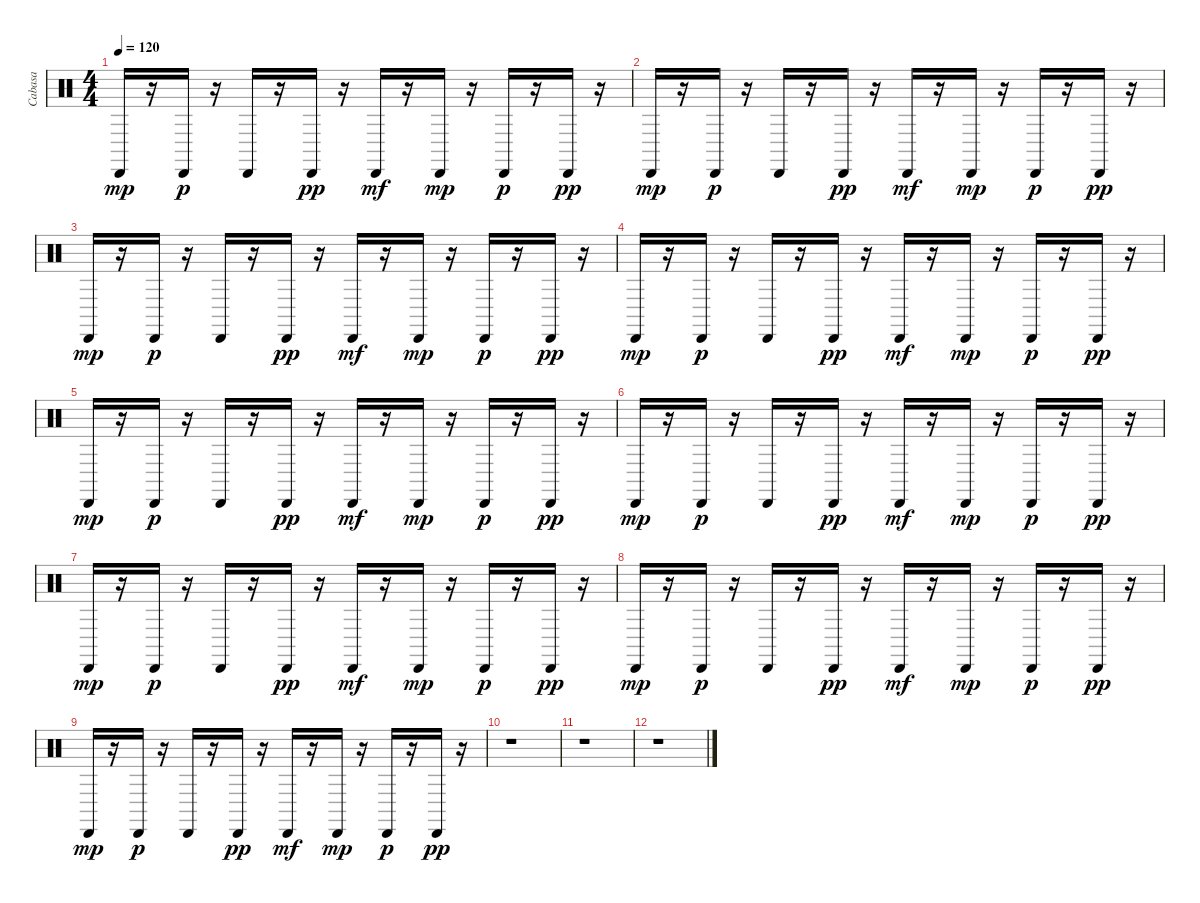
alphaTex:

\track ("Cabasa" "Cabasa") {instrument percussion}
\staff {score}
\articulation defaults
\ts (4 4)
\tempo 120
\clef neutral
\ks c "Cabasa (hit)".16{dy mp}
r.16 "Cabasa (hit)".16{dy p} r.16 "Cabasa (hit)".16 r.16 "Cabasa (hit)".16{dy pp} r.16 "Cabasa (hit)".16{dy mf} r.16 "Cabasa (hit)".16{dy mp} r.16 "Cabasa (hit)".16{dy p} r.16 "Cabasa (hit)".16{dy pp} r.16 |
"Cabasa (hit)".16{dy mp} r.16 "Cabasa (hit)".16{dy p} r.16 "Cabasa (hit)".16 r.16 "Cabasa (hit)".16{dy pp} r.16 "Cabasa (hit)".16{dy mf} r.16 "Cabasa (hit)".16{dy mp} r.16 "Cabasa (hit)".16{dy p} r.16 "Cabasa (hit)".16{dy pp} r.16 |
"Cabasa (hit)".16{dy mp} r.16 "Cabasa (hit)".16{dy p} r.16 "Cabasa (hit)".16 r.16 "Cabasa (hit)".16{dy pp} r.16 "Cabasa (hit)".16{dy mf} r.16 "Cabasa (hit)".16{dy mp} r.16 "Cabasa (hit)".16{dy p} r.16 "Cabasa (hit)".16{dy pp} r.16 |
"Cabasa (hit)".16{dy mp} r.16 "Cabasa (hit)".16{dy p} r.16 "Cabasa (hit)".16 r.16 "Cabasa (hit)".16{dy pp} r.16 "Cabasa (hit)".16{dy mf} r.16 "Cabasa (hit)".16{dy mp} r.16 "Cabasa (hit)".16{dy p} r.16 "Cabasa (hit)".16{dy pp} r.16 |
"Cabasa (hit)".16{dy mp} r.16 "Cabasa (hit)".16{dy p} r.16 "Cabasa (hit)".16 r.16 "Cabasa (hit)".16{dy pp} r.16 "Cabasa (hit)".16{dy mf} r.16 "Cabasa (hit)".16{dy mp} r.16 "Cabasa (hit)".16{dy p} r.16 "Cabasa (hit)".16{dy pp} r.16 |
"Cabasa (hit)".16{dy mp} r.16 "Cabasa (hit)".16{dy p} r.16 "Cabasa (hit)".16 r.16 "Cabasa (hit)".16{dy pp} r.16 "Cabasa (hit)".16{dy mf} r.16 "Cabasa (hit)".16{dy mp} r.16 "Cabasa (hit)".16{dy p} r.16 "Cabasa (hit)".16{dy pp} r.16 |
"Cabasa (hit)".16{dy mp} r.16 "Cabasa (hit)".16{dy p} r.16 "Cabasa (hit)".16 r.16 "Cabasa (hit)".16{dy pp} r.16 "Cabasa (hit)".16{dy mf} r.16 "Cabasa (hit)".16{dy mp} r.16 "Cabasa (hit)".16{dy p} r.16 "Cabasa (hit)".16{dy pp} r.16 |
"Cabasa (hit)".16{dy mp} r.16 "Cabasa (hit)".16{dy p} r.16 "Cabasa (hit)".16 r.16 "Cabasa (hit)".16{dy pp} r.16 "Cabasa (hit)".16{dy mf} r.16 "Cabasa (hit)".16{dy mp} r.16 "Cabasa (hit)".16{dy p} r.16 "Cabasa (hit)".16{dy pp} r.16 |
"Cabasa (hit)".16{dy mp} r.16 "Cabasa (hit)".16{dy p} r.16 "Cabasa (hit)".16 r.16 "Cabasa (hit)".16{dy pp} r.16 "Cabasa (hit)".16{dy mf} r.16 "Cabasa (hit)".16{dy mp} r.16 "Cabasa (hit)".16{dy p} r.16 "Cabasa (hit)".16{dy pp} r.16 |
r.1 |
r.1 |
r.1
